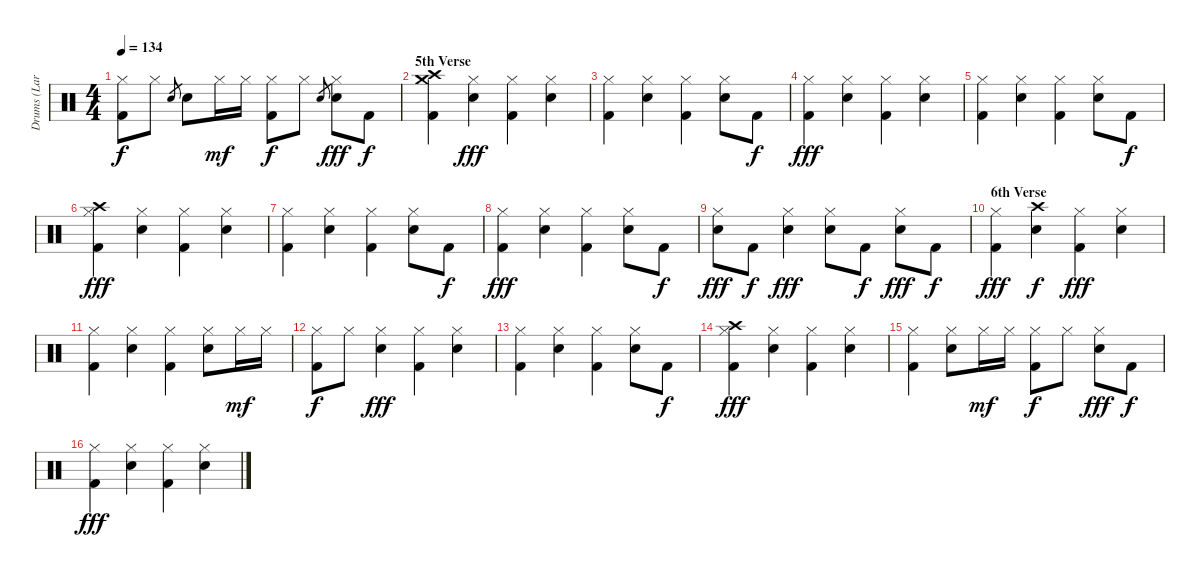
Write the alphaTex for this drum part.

\track ("Drums (Lars)" "Drums (Lar") {instrument percussion}
\staff {score}
\articulation defaults
\ts (4 4)
\tempo 134
\clef neutral
\ks c
("Hi-Hat (closed)" "Kick (hit) 2").8{dy f} "Hi-Hat (closed)".8 "Snare (hit) 2".8{gr} "Snare (hit) 2".8 "Hi-Hat (closed)".16{dy mf} "Hi-Hat (closed)".16 ("Hi-Hat (closed)" "Kick (hit) 2").8{dy f} "Hi-Hat (closed)".8 "Snare (hit) 2".8{gr} ("Hi-Hat (closed)" "Snare (hit) 2").8{dy fff} "Kick (hit) 2".8{dy f} |
\section ("" "5th Verse")
("Crash high (hit)" "Crash medium (hit)" "Kick (hit) 2").4 ("Hi-Hat (closed)" "Snare (hit) 2").4{dy fff} ("Hi-Hat (closed)" "Kick (hit) 2").4 ("Hi-Hat (closed)" "Snare (hit) 2").4 |
("Hi-Hat (closed)" "Kick (hit) 2").4 ("Hi-Hat (closed)" "Snare (hit) 2").4 ("Hi-Hat (closed)" "Kick (hit) 2").4 ("Hi-Hat (closed)" "Snare (hit) 2").8 "Kick (hit) 2".8{dy f} |
("Hi-Hat (closed)" "Kick (hit) 2").4{dy fff} ("Hi-Hat (closed)" "Snare (hit) 2").4 ("Hi-Hat (closed)" "Kick (hit) 2").4 ("Hi-Hat (closed)" "Snare (hit) 2").4 |
("Hi-Hat (closed)" "Kick (hit) 2").4 ("Hi-Hat (closed)" "Snare (hit) 2").4 ("Hi-Hat (closed)" "Kick (hit) 2").4 ("Hi-Hat (closed)" "Snare (hit) 2").8 "Kick (hit) 2".8{dy f} |
("Crash high (hit)" "Hi-Hat (closed)" "Kick (hit) 2").4{dy fff} ("Hi-Hat (closed)" "Snare (hit) 2").4 ("Hi-Hat (closed)" "Kick (hit) 2").4 ("Hi-Hat (closed)" "Snare (hit) 2").4 |
("Hi-Hat (closed)" "Kick (hit) 2").4 ("Hi-Hat (closed)" "Snare (hit) 2").4 ("Hi-Hat (closed)" "Kick (hit) 2").4 ("Hi-Hat (closed)" "Snare (hit) 2").8 "Kick (hit) 2".8{dy f} |
("Hi-Hat (closed)" "Kick (hit) 2").4{dy fff} ("Hi-Hat (closed)" "Snare (hit) 2").4 ("Hi-Hat (closed)" "Kick (hit) 2").4 ("Hi-Hat (closed)" "Snare (hit) 2").8 "Kick (hit) 2".8{dy f} |
("Hi-Hat (closed)" "Snare (hit) 2").8{dy fff} "Kick (hit) 2".8{dy f} ("Hi-Hat (closed)" "Snare (hit) 2").4{dy fff} ("Hi-Hat (closed)" "Snare (hit) 2").8 "Kick (hit) 2".8{dy f} ("Hi-Hat (closed)" "Snare (hit) 2").8{dy fff} "Kick (hit) 2".8{dy f} |
\section ("" "6th Verse")
("Hi-Hat (closed)" "Kick (hit) 2").4{dy fff} ("Crash high (hit)" "Snare (hit) 2").4{dy f} ("Hi-Hat (closed)" "Kick (hit) 2").4{dy fff} ("Hi-Hat (closed)" "Snare (hit) 2").4 |
("Hi-Hat (closed)" "Kick (hit) 2").4 ("Hi-Hat (closed)" "Snare (hit) 2").4 ("Hi-Hat (closed)" "Kick (hit) 2").4 ("Hi-Hat (closed)" "Snare (hit) 2").8 "Hi-Hat (closed)".16{dy mf} "Hi-Hat (closed)".16 |
("Hi-Hat (closed)" "Kick (hit) 2").8{dy f} "Hi-Hat (closed)".8 ("Hi-Hat (closed)" "Snare (hit) 2").4{dy fff} ("Hi-Hat (closed)" "Kick (hit) 2").4 ("Hi-Hat (closed)" "Snare (hit) 2").4 |
("Hi-Hat (closed)" "Kick (hit) 2").4 ("Hi-Hat (closed)" "Snare (hit) 2").4 ("Hi-Hat (closed)" "Kick (hit) 2").4 ("Hi-Hat (closed)" "Snare (hit) 2").8 "Kick (hit) 2".8{dy f} |
("Crash high (hit)" "Hi-Hat (closed)" "Kick (hit) 2").4{dy fff} ("Hi-Hat (closed)" "Snare (hit) 2").4 ("Hi-Hat (closed)" "Kick (hit) 2").4 ("Hi-Hat (closed)" "Snare (hit) 2").4 |
("Hi-Hat (closed)" "Kick (hit) 2").4 ("Hi-Hat (closed)" "Snare (hit) 2").8 "Hi-Hat (closed)".16{dy mf} "Hi-Hat (closed)".16 ("Hi-Hat (closed)" "Kick (hit) 2").8{dy f} "Hi-Hat (closed)".8 ("Hi-Hat (closed)" "Snare (hit) 2").8{dy fff} "Kick (hit) 2".8{dy f} |
("Hi-Hat (closed)" "Kick (hit) 2").4{dy fff} ("Hi-Hat (closed)" "Snare (hit) 2").4 ("Hi-Hat (closed)" "Kick (hit) 2").4 ("Hi-Hat (closed)" "Snare (hit) 2").4
